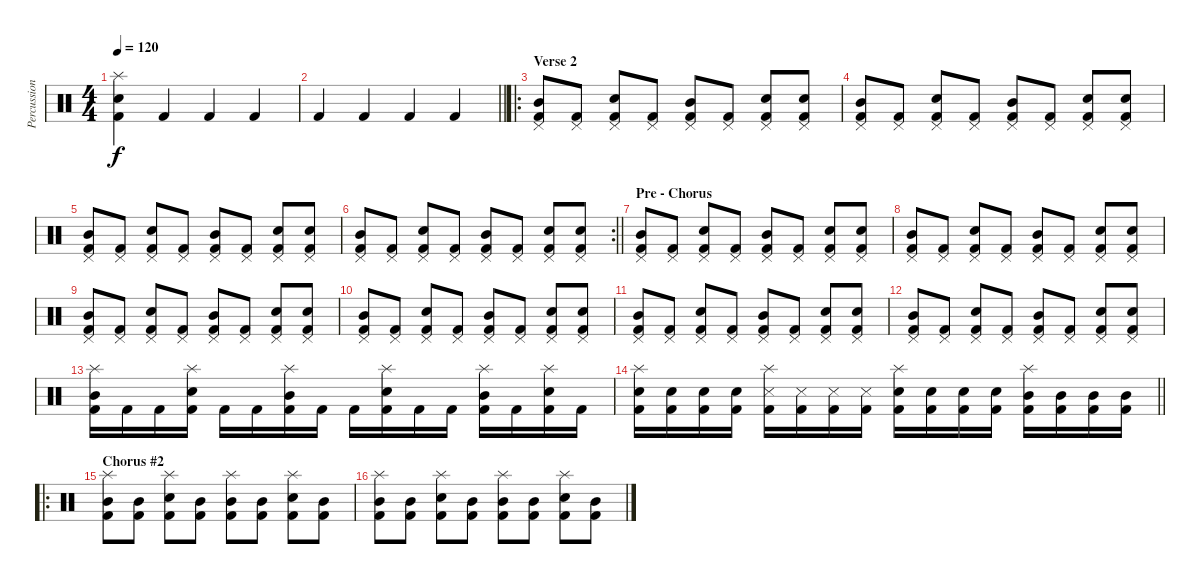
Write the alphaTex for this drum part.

\track ("Percussion" "Percussion") {instrument percussion}
\staff {score}
\articulation defaults
\ts (4 4)
\tempo 120
\clef neutral
\ks c
("Splash (hit)" "Electric Snare (hit)" "Kick (hit) 2").4{dy f} "Kick (hit) 2".4 "Kick (hit) 2".4 "Kick (hit) 2".4 |
\barLineRight lightlight "Kick (hit) 2".4 "Kick (hit) 2".4 "Kick (hit) 2".4 "Kick (hit) 2".4
|
\ro
\section ("" "Verse 2")
("Pedal Hi-Hat (hit)" "Mid Tom (hit)" "Kick (hit) 2").8 ("Pedal Hi-Hat (hit)" "Kick (hit) 2").8 ("Pedal Hi-Hat (hit)" "Electric Snare (hit)" "Kick (hit) 2").8 ("Pedal Hi-Hat (hit)" "Kick (hit) 2").8 ("Pedal Hi-Hat (hit)" "Mid Tom (hit)" "Kick (hit) 2").8 ("Pedal Hi-Hat (hit)" "Kick (hit) 2").8 ("Pedal Hi-Hat (hit)" "Electric Snare (hit)" "Kick (hit) 2").8 ("Pedal Hi-Hat (hit)" "Electric Snare (hit)" "Kick (hit) 2").8 |
("Pedal Hi-Hat (hit)" "Mid Tom (hit)" "Kick (hit) 2").8 ("Pedal Hi-Hat (hit)" "Kick (hit) 2").8 ("Pedal Hi-Hat (hit)" "Electric Snare (hit)" "Kick (hit) 2").8 ("Pedal Hi-Hat (hit)" "Kick (hit) 2").8 ("Pedal Hi-Hat (hit)" "Mid Tom (hit)" "Kick (hit) 2").8 ("Pedal Hi-Hat (hit)" "Kick (hit) 2").8 ("Pedal Hi-Hat (hit)" "Electric Snare (hit)" "Kick (hit) 2").8 ("Pedal Hi-Hat (hit)" "Electric Snare (hit)" "Kick (hit) 2").8 |
("Pedal Hi-Hat (hit)" "Mid Tom (hit)" "Kick (hit) 2").8 ("Pedal Hi-Hat (hit)" "Kick (hit) 2").8 ("Pedal Hi-Hat (hit)" "Electric Snare (hit)" "Kick (hit) 2").8 ("Pedal Hi-Hat (hit)" "Kick (hit) 2").8 ("Pedal Hi-Hat (hit)" "Mid Tom (hit)" "Kick (hit) 2").8 ("Pedal Hi-Hat (hit)" "Kick (hit) 2").8 ("Pedal Hi-Hat (hit)" "Electric Snare (hit)" "Kick (hit) 2").8 ("Pedal Hi-Hat (hit)" "Electric Snare (hit)" "Kick (hit) 2").8 |
\rc 2
\barLineRight lightlight
("Pedal Hi-Hat (hit)" "Mid Tom (hit)" "Kick (hit) 2").8 ("Pedal Hi-Hat (hit)" "Kick (hit) 2").8 ("Pedal Hi-Hat (hit)" "Electric Snare (hit)" "Kick (hit) 2").8 ("Pedal Hi-Hat (hit)" "Kick (hit) 2").8 ("Pedal Hi-Hat (hit)" "Mid Tom (hit)" "Kick (hit) 2").8 ("Pedal Hi-Hat (hit)" "Kick (hit) 2").8 ("Pedal Hi-Hat (hit)" "Electric Snare (hit)" "Kick (hit) 2").8 ("Pedal Hi-Hat (hit)" "Electric Snare (hit)" "Kick (hit) 2").8 |
\section ("" "Pre - Chorus")
("Pedal Hi-Hat (hit)" "Mid Tom (hit)" "Kick (hit) 2").8 ("Pedal Hi-Hat (hit)" "Kick (hit) 2").8 ("Pedal Hi-Hat (hit)" "Electric Snare (hit)" "Kick (hit) 2").8 ("Pedal Hi-Hat (hit)" "Kick (hit) 2").8 ("Pedal Hi-Hat (hit)" "Mid Tom (hit)" "Kick (hit) 2").8 ("Pedal Hi-Hat (hit)" "Kick (hit) 2").8 ("Pedal Hi-Hat (hit)" "Electric Snare (hit)" "Kick (hit) 2").8 ("Pedal Hi-Hat (hit)" "Electric Snare (hit)" "Kick (hit) 2").8 |
("Pedal Hi-Hat (hit)" "Mid Tom (hit)" "Kick (hit) 2").8 ("Pedal Hi-Hat (hit)" "Kick (hit) 2").8 ("Pedal Hi-Hat (hit)" "Electric Snare (hit)" "Kick (hit) 2").8 ("Pedal Hi-Hat (hit)" "Kick (hit) 2").8 ("Pedal Hi-Hat (hit)" "Mid Tom (hit)" "Kick (hit) 2").8 ("Pedal Hi-Hat (hit)" "Kick (hit) 2").8 ("Pedal Hi-Hat (hit)" "Electric Snare (hit)" "Kick (hit) 2").8 ("Pedal Hi-Hat (hit)" "Electric Snare (hit)" "Kick (hit) 2").8 |
("Pedal Hi-Hat (hit)" "Mid Tom (hit)" "Kick (hit) 2").8 ("Pedal Hi-Hat (hit)" "Kick (hit) 2").8 ("Pedal Hi-Hat (hit)" "Electric Snare (hit)" "Kick (hit) 2").8 ("Pedal Hi-Hat (hit)" "Kick (hit) 2").8 ("Pedal Hi-Hat (hit)" "Mid Tom (hit)" "Kick (hit) 2").8 ("Pedal Hi-Hat (hit)" "Kick (hit) 2").8 ("Pedal Hi-Hat (hit)" "Electric Snare (hit)" "Kick (hit) 2").8 ("Pedal Hi-Hat (hit)" "Electric Snare (hit)" "Kick (hit) 2").8 |
("Pedal Hi-Hat (hit)" "Mid Tom (hit)" "Kick (hit) 2").8 ("Pedal Hi-Hat (hit)" "Kick (hit) 2").8 ("Pedal Hi-Hat (hit)" "Electric Snare (hit)" "Kick (hit) 2").8 ("Pedal Hi-Hat (hit)" "Kick (hit) 2").8 ("Pedal Hi-Hat (hit)" "Mid Tom (hit)" "Kick (hit) 2").8 ("Pedal Hi-Hat (hit)" "Kick (hit) 2").8 ("Pedal Hi-Hat (hit)" "Electric Snare (hit)" "Kick (hit) 2").8 ("Pedal Hi-Hat (hit)" "Electric Snare (hit)" "Kick (hit) 2").8 |
("Pedal Hi-Hat (hit)" "Mid Tom (hit)" "Kick (hit) 2").8 ("Pedal Hi-Hat (hit)" "Kick (hit) 2").8 ("Pedal Hi-Hat (hit)" "Electric Snare (hit)" "Kick (hit) 2").8 ("Pedal Hi-Hat (hit)" "Kick (hit) 2").8 ("Pedal Hi-Hat (hit)" "Mid Tom (hit)" "Kick (hit) 2").8 ("Pedal Hi-Hat (hit)" "Kick (hit) 2").8 ("Pedal Hi-Hat (hit)" "Electric Snare (hit)" "Kick (hit) 2").8 ("Pedal Hi-Hat (hit)" "Electric Snare (hit)" "Kick (hit) 2").8 |
("Pedal Hi-Hat (hit)" "Mid Tom (hit)" "Kick (hit) 2").8 ("Pedal Hi-Hat (hit)" "Kick (hit) 2").8 ("Pedal Hi-Hat (hit)" "Electric Snare (hit)" "Kick (hit) 2").8 ("Pedal Hi-Hat (hit)" "Kick (hit) 2").8 ("Pedal Hi-Hat (hit)" "Mid Tom (hit)" "Kick (hit) 2").8 ("Pedal Hi-Hat (hit)" "Kick (hit) 2").8 ("Pedal Hi-Hat (hit)" "Electric Snare (hit)" "Kick (hit) 2").8 ("Pedal Hi-Hat (hit)" "Electric Snare (hit)" "Kick (hit) 2").8 |
("Splash (hit)" "Mid Tom (hit)" "Kick (hit) 2").16 "Kick (hit) 2".16 "Kick (hit) 2".16 ("Splash (hit)" "Electric Snare (hit)" "Kick (hit) 2").16 "Kick (hit) 2".16 "Kick (hit) 2".16 ("Splash (hit)" "Mid Tom (hit)" "Kick (hit) 2").16 "Kick (hit) 2".16 "Kick (hit) 2".16 ("Splash (hit)" "Electric Snare (hit)" "Kick (hit) 2").16 "Kick (hit) 2".16 "Kick (hit) 2".16 ("Splash (hit)" "Mid Tom (hit)" "Kick (hit) 2").16 "Kick (hit) 2".16 ("Splash (hit)" "Electric Snare (hit)" "Kick (hit) 2").16 "Kick (hit) 2".16 |
\barLineRight lightlight
("Splash (hit)" "Electric Snare (hit)" "Kick (hit) 2").16 ("Electric Snare (hit)" "Kick (hit) 2").16 ("Electric Snare (hit)" "Kick (hit) 2").16 ("Electric Snare (hit)" "Kick (hit) 2").16 ("Splash (hit)" "Metronome (hit)" "Kick (hit) 2").16 ("Metronome (hit)" "Kick (hit) 2").16 ("Metronome (hit)" "Kick (hit) 2").16 ("Metronome (hit)" "Kick (hit) 2").16 ("Splash (hit)" "Snare (hit)" "Kick (hit) 2").16 ("Snare (hit)" "Kick (hit) 2").16 ("Snare (hit)" "Kick (hit) 2").16 ("Snare (hit)" "Kick (hit) 2").16 ("Splash (hit)" "Mid Tom (hit)" "Kick (hit) 2").16 ("Mid Tom (hit)" "Kick (hit) 2").16 ("Mid Tom (hit)" "Kick (hit) 2").16 ("Mid Tom (hit)" "Kick (hit) 2").16 |
\ro
\section ("" "Chorus #2")
("Splash (hit)" "Mid Tom (hit)" "Kick (hit) 2").8 ("Mid Tom (hit)" "Kick (hit) 2").8 ("Splash (hit)" "Electric Snare (hit)" "Kick (hit) 2").8 ("Mid Tom (hit)" "Kick (hit) 2").8 ("Splash (hit)" "Mid Tom (hit)" "Kick (hit) 2").8 ("Mid Tom (hit)" "Kick (hit) 2").8 ("Splash (hit)" "Electric Snare (hit)" "Kick (hit) 2").8 ("Mid Tom (hit)" "Kick (hit) 2").8 |
("Splash (hit)" "Mid Tom (hit)" "Kick (hit) 2").8 ("Mid Tom (hit)" "Kick (hit) 2").8 ("Splash (hit)" "Electric Snare (hit)" "Kick (hit) 2").8 ("Mid Tom (hit)" "Kick (hit) 2").8 ("Splash (hit)" "Mid Tom (hit)" "Kick (hit) 2").8 ("Mid Tom (hit)" "Kick (hit) 2").8 ("Splash (hit)" "Electric Snare (hit)" "Kick (hit) 2").8 ("Mid Tom (hit)" "Kick (hit) 2").8
